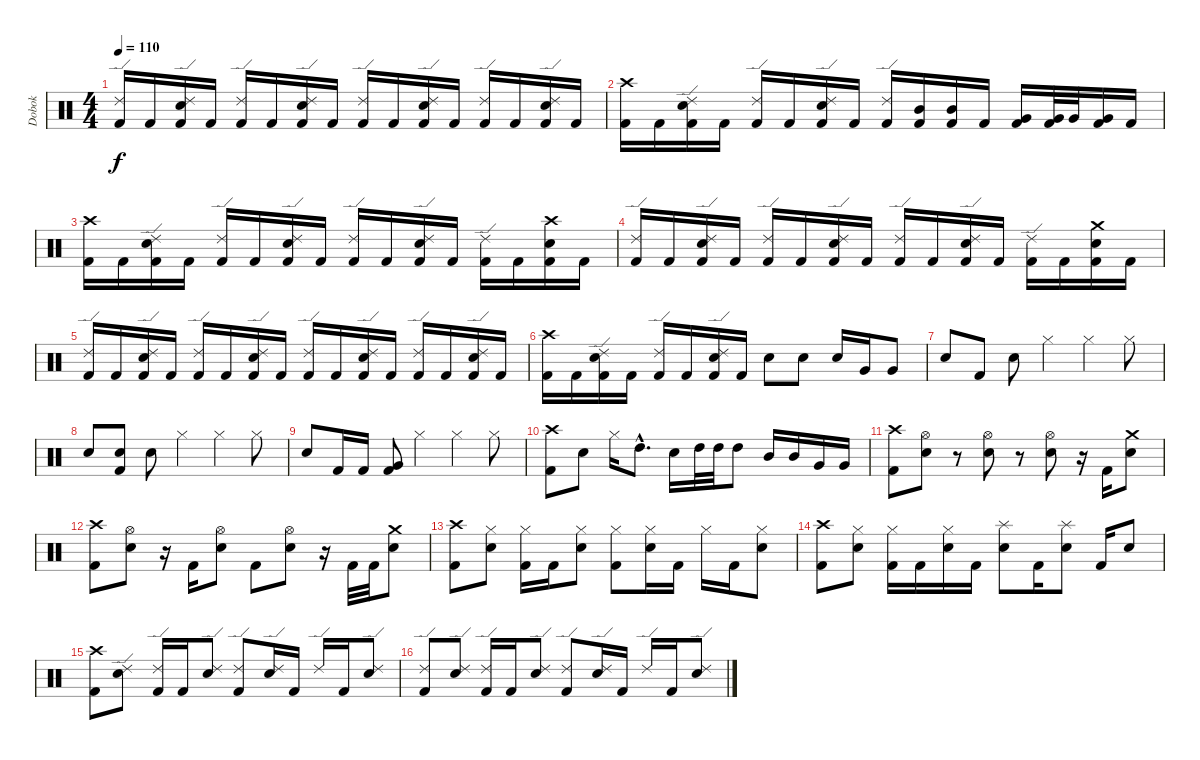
\track ("Dobok" "Dobok") {instrument percussion}
\staff {score}
\articulation defaults
\ts (4 4)
\tempo 110
\clef neutral
\ks c
("Ride (edge) 2" "Kick (hit) 2").16{dy f} "Kick (hit) 2".16 ("Ride (edge) 2" "Snare (hit) 2" "Kick (hit) 2").16 "Kick (hit) 2".16 ("Ride (edge) 2" "Kick (hit) 2").16 "Kick (hit) 2".16 ("Ride (edge) 2" "Snare (hit) 2" "Kick (hit) 2").16 "Kick (hit) 2".16 ("Ride (edge) 2" "Kick (hit) 2").16 "Kick (hit) 2".16 ("Ride (edge) 2" "Snare (hit) 2" "Kick (hit) 2").16 "Kick (hit) 2".16 ("Ride (edge) 2" "Kick (hit) 2").16 "Kick (hit) 2".16 ("Ride (edge) 2" "Snare (hit) 2" "Kick (hit) 2").16 "Kick (hit) 2".16 |
("Crash high (hit)" "Kick (hit) 2").16 "Kick (hit) 2".16 ("Ride (edge) 2" "Snare (hit) 2" "Kick (hit) 2").16 "Kick (hit) 2".16 ("Ride (edge) 2" "Kick (hit) 2").16 "Kick (hit) 2".16 ("Ride (edge) 2" "Snare (hit) 2" "Kick (hit) 2").16 "Kick (hit) 2".16 ("Ride (edge) 2" "Kick (hit) 2").16 ("Mid Tom (hit)" "Kick (hit) 2").16 ("Mid Tom (hit)" "Kick (hit) 2").16 "Kick (hit) 2".16 ("Very Low Tom (hit)" "Kick (hit) 2").16 ("Very Low Tom (hit)" "Kick (hit) 2").32 "Very Low Tom (hit)".32 ("Very Low Tom (hit)" "Kick (hit) 2").16 "Kick (hit) 2".16 |
("Crash high (hit)" "Kick (hit) 2").16 "Kick (hit) 2".16 ("Ride (edge) 2" "Snare (hit) 2" "Kick (hit) 2").16 "Kick (hit) 2".16 ("Ride (edge) 2" "Kick (hit) 2").16 "Kick (hit) 2".16 ("Ride (edge) 2" "Snare (hit) 2" "Kick (hit) 2").16 "Kick (hit) 2".16 ("Ride (edge) 2" "Kick (hit) 2").16 "Kick (hit) 2".16 ("Ride (edge) 2" "Snare (hit) 2" "Kick (hit) 2").16 "Kick (hit) 2".16 ("Ride (edge) 2" "Kick (hit) 2").16 "Kick (hit) 2".16 ("Crash high (hit)" "Snare (hit) 2" "Kick (hit) 2").16 "Kick (hit) 2".16 |
("Ride (edge) 2" "Kick (hit) 2").16 "Kick (hit) 2".16 ("Ride (edge) 2" "Snare (hit) 2" "Kick (hit) 2").16 "Kick (hit) 2".16 ("Ride (edge) 2" "Kick (hit) 2").16 "Kick (hit) 2".16 ("Ride (edge) 2" "Snare (hit) 2" "Kick (hit) 2").16 "Kick (hit) 2".16 ("Ride (edge) 2" "Kick (hit) 2").16 "Kick (hit) 2".16 ("Ride (edge) 2" "Snare (hit) 2" "Kick (hit) 2").16 "Kick (hit) 2".16 ("Ride (edge) 2" "Kick (hit) 2").16 "Kick (hit) 2".16 ("Crash medium (hit)" "Snare (hit) 2" "Kick (hit) 2").16 "Kick (hit) 2".16 |
("Ride (edge) 2" "Kick (hit) 2").16 "Kick (hit) 2".16 ("Ride (edge) 2" "Snare (hit) 2" "Kick (hit) 2").16 "Kick (hit) 2".16 ("Ride (edge) 2" "Kick (hit) 2").16 "Kick (hit) 2".16 ("Ride (edge) 2" "Snare (hit) 2" "Kick (hit) 2").16 "Kick (hit) 2".16 ("Ride (edge) 2" "Kick (hit) 2").16 "Kick (hit) 2".16 ("Ride (edge) 2" "Snare (hit) 2" "Kick (hit) 2").16 "Kick (hit) 2".16 ("Ride (edge) 2" "Kick (hit) 2").16 "Kick (hit) 2".16 ("Ride (edge) 2" "Snare (hit) 2" "Kick (hit) 2").16 "Kick (hit) 2".16 |
("Crash high (hit)" "Kick (hit) 2").16 "Kick (hit) 2".16 ("Ride (edge) 2" "Snare (hit) 2" "Kick (hit) 2").16 "Kick (hit) 2".16 ("Ride (edge) 2" "Kick (hit) 2").16 "Kick (hit) 2".16 ("Ride (edge) 2" "Snare (hit) 2" "Kick (hit) 2").16 "Kick (hit) 2".16 "Snare (hit) 2".8 "Snare (hit) 2".8 "Snare (hit) 2".16 "Very Low Tom (hit)".16 "Very Low Tom (hit)".8 |
"Snare (hit) 2".8 "Kick (hit) 2".8 "Snare (hit) 2".8 "Hi-Hat (closed)".4 "Hi-Hat (closed)".4 "Hi-Hat (closed)".8 |
"Snare (hit) 2".8 ("Snare (hit) 2" "Kick (hit) 2").8 "Snare (hit) 2".8 "Hi-Hat (closed)".4 "Hi-Hat (closed)".4 "Hi-Hat (closed)".8 |
"Snare (hit) 2".8 "Kick (hit) 2".16 "Kick (hit) 2".16 ("Very Low Tom (hit)" "Kick (hit) 2").8 "Hi-Hat (closed)".4 "Hi-Hat (closed)".4 "Hi-Hat (closed)".8 |
("Crash high (hit)" "Kick (hit) 2").8 "Snare (hit) 2".8 "Hi-Hat (closed)".16 "High Tom (hit)"{hac}.8{d} "Snare (hit) 2".16 "High Tom (hit)".32 "High Tom (hit)".32 "High Tom (hit)".8 "Mid Tom (hit)".16 "Mid Tom (hit)".16 "Very Low Tom (hit)".16 "Very Low Tom (hit)".16 |
("Crash high (hit)" "Kick (hit) 2").8 ("Hi-Hat (open)" "Snare (hit) 2").8 r.8 ("Hi-Hat (open)" "Snare (hit) 2").8 r.8 ("Hi-Hat (open)" "Snare (hit) 2").8 r.16 "Kick (hit) 2".16 ("Crash medium (hit)" "Snare (hit) 2").8 |
("Crash high (hit)" "Kick (hit) 2").8 ("Hi-Hat (open)" "Snare (hit) 2").8 r.16 "Kick (hit) 2".16 ("Hi-Hat (open)" "Snare (hit) 2").8 "Kick (hit) 2".8 ("Hi-Hat (open)" "Snare (hit) 2").8 r.16 "Kick (hit) 2".32 "Kick (hit) 2".32 ("Crash medium (hit)" "Snare (hit) 2").8 |
("Crash high (hit)" "Kick (hit) 2").8 ("Hi-Hat (closed)" "Snare (hit) 2").8 ("Hi-Hat (closed)" "Kick (hit) 2").16 "Kick (hit) 2".16 ("Hi-Hat (closed)" "Snare (hit) 2").8 ("Hi-Hat (closed)" "Kick (hit) 2").8 ("Hi-Hat (closed)" "Snare (hit) 2").16 "Kick (hit) 2".16 "Hi-Hat (closed)".16 "Kick (hit) 2".16 ("Hi-Hat (closed)" "Snare (hit) 2").8 |
("Crash high (hit)" "Kick (hit) 2").8 ("Hi-Hat (closed)" "Snare (hit) 2").8 ("Hi-Hat (closed)" "Kick (hit) 2").16 "Kick (hit) 2".16 ("Hi-Hat (closed)" "Snare (hit) 2").16 "Kick (hit) 2".16 ("Splash (hit)" "Snare (hit) 2").8 "Kick (hit) 2".16 ("Splash (hit)" "Snare (hit) 2").8 "Kick (hit) 2".16 "Snare (hit) 2".8 |
("Crash high (hit)" "Kick (hit) 2").8 ("Ride (edge) 2" "Snare (hit) 2").8 ("Ride (edge) 2" "Kick (hit) 2").16 "Kick (hit) 2".16 ("Ride (edge) 2" "Snare (hit) 2").8 ("Ride (edge) 2" "Kick (hit) 2").8 ("Ride (edge) 2" "Snare (hit) 2").16 "Kick (hit) 2".16 "Ride (edge) 2".16 "Kick (hit) 2".16 ("Ride (edge) 2" "Snare (hit) 2").8 |
("Ride (edge) 2" "Kick (hit) 2").8 ("Ride (edge) 2" "Snare (hit) 2").8 ("Ride (edge) 2" "Kick (hit) 2").16 "Kick (hit) 2".16 ("Ride (edge) 2" "Snare (hit) 2").8 ("Ride (edge) 2" "Kick (hit) 2").8 ("Ride (edge) 2" "Snare (hit) 2").16 "Kick (hit) 2".16 "Ride (edge) 2".16 "Kick (hit) 2".16 ("Ride (edge) 2" "Snare (hit) 2").8
